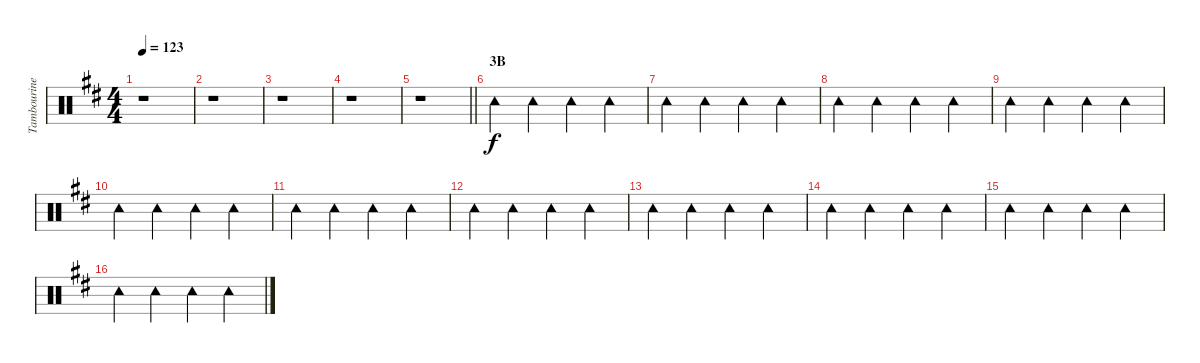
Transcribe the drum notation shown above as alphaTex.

\track ("Tambourine" "Tambourine") {instrument percussion}
\staff {score}
\articulation defaults
\ts (4 4)
\tempo 123
\clef neutral
\ks d
r.1{dy f} |
r.1 |
r.1 |
r.1 |
\barLineRight lightlight
r.1 |
\section ("" "3B")
"Tambourine (hit)".4 "Tambourine (hit)".4 "Tambourine (hit)".4 "Tambourine (hit)".4 |
"Tambourine (hit)".4 "Tambourine (hit)".4 "Tambourine (hit)".4 "Tambourine (hit)".4 |
"Tambourine (hit)".4 "Tambourine (hit)".4 "Tambourine (hit)".4 "Tambourine (hit)".4 |
"Tambourine (hit)".4 "Tambourine (hit)".4 "Tambourine (hit)".4 "Tambourine (hit)".4 |
"Tambourine (hit)".4 "Tambourine (hit)".4 "Tambourine (hit)".4 "Tambourine (hit)".4 |
"Tambourine (hit)".4 "Tambourine (hit)".4 "Tambourine (hit)".4 "Tambourine (hit)".4 |
"Tambourine (hit)".4 "Tambourine (hit)".4 "Tambourine (hit)".4 "Tambourine (hit)".4 |
"Tambourine (hit)".4 "Tambourine (hit)".4 "Tambourine (hit)".4 "Tambourine (hit)".4 |
"Tambourine (hit)".4 "Tambourine (hit)".4 "Tambourine (hit)".4 "Tambourine (hit)".4 |
"Tambourine (hit)".4 "Tambourine (hit)".4 "Tambourine (hit)".4 "Tambourine (hit)".4 |
"Tambourine (hit)".4 "Tambourine (hit)".4 "Tambourine (hit)".4 "Tambourine (hit)".4
